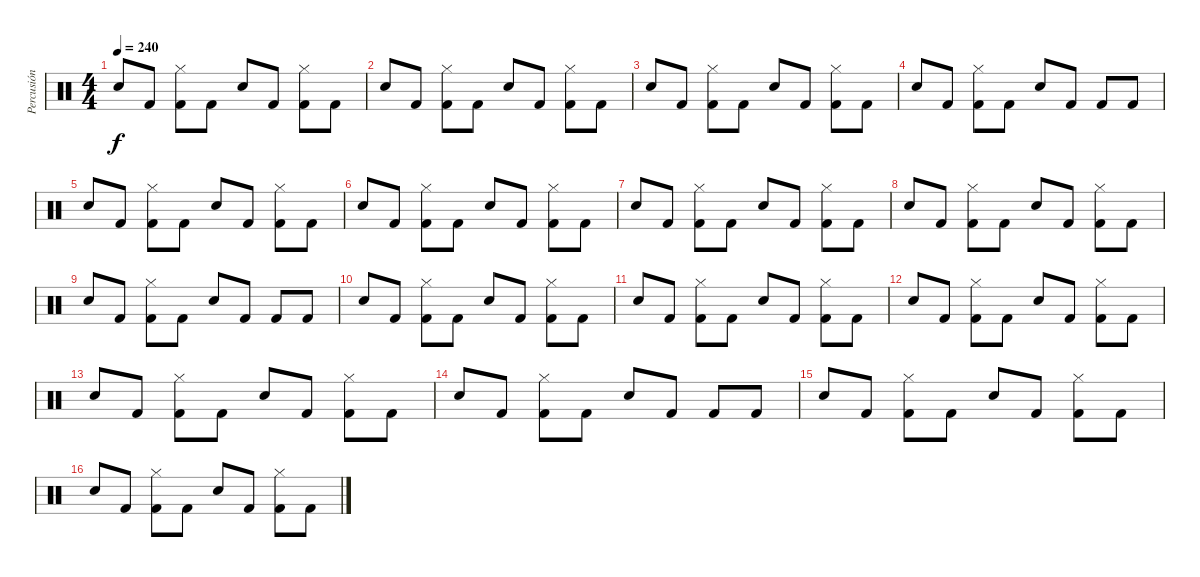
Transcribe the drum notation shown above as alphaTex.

\track ("Percusión" "Percusión") {instrument percussion}
\staff {score}
\articulation defaults
\ts (4 4)
\tempo 240
\clef neutral
\ks c "Snare (hit) 2".8{dy f} "Kick (hit) 2".8
("Kick (hit) 2" "Hi-Hat (closed)").8 "Kick (hit) 2".8 "Snare (hit) 2".8 "Kick (hit) 2".8 ("Kick (hit) 2" "Hi-Hat (closed)").8 "Kick (hit) 2".8 |
"Snare (hit) 2".8 "Kick (hit) 2".8 ("Kick (hit) 2" "Hi-Hat (closed)").8 "Kick (hit) 2".8 "Snare (hit) 2".8 "Kick (hit) 2".8 ("Kick (hit) 2" "Hi-Hat (closed)").8 "Kick (hit) 2".8 |
"Snare (hit) 2".8 "Kick (hit) 2".8 ("Kick (hit) 2" "Hi-Hat (closed)").8 "Kick (hit) 2".8 "Snare (hit) 2".8 "Kick (hit) 2".8 ("Kick (hit) 2" "Hi-Hat (closed)").8 "Kick (hit) 2".8 |
"Snare (hit) 2".8 "Kick (hit) 2".8 ("Kick (hit) 2" "Hi-Hat (closed)").8 "Kick (hit) 2".8 "Snare (hit) 2".8 "Kick (hit) 2".8 "Kick (hit) 2".8 "Kick (hit) 2".8 |
"Snare (hit) 2".8 "Kick (hit) 2".8 ("Kick (hit) 2" "Hi-Hat (closed)").8 "Kick (hit) 2".8 "Snare (hit) 2".8 "Kick (hit) 2".8 ("Kick (hit) 2" "Hi-Hat (closed)").8 "Kick (hit) 2".8 |
"Snare (hit) 2".8 "Kick (hit) 2".8 ("Kick (hit) 2" "Hi-Hat (closed)").8 "Kick (hit) 2".8 "Snare (hit) 2".8 "Kick (hit) 2".8 ("Kick (hit) 2" "Hi-Hat (closed)").8 "Kick (hit) 2".8 |
"Snare (hit) 2".8 "Kick (hit) 2".8 ("Kick (hit) 2" "Hi-Hat (closed)").8 "Kick (hit) 2".8 "Snare (hit) 2".8 "Kick (hit) 2".8 ("Kick (hit) 2" "Hi-Hat (closed)").8 "Kick (hit) 2".8 |
"Snare (hit) 2".8 "Kick (hit) 2".8 ("Kick (hit) 2" "Hi-Hat (closed)").8 "Kick (hit) 2".8 "Snare (hit) 2".8 "Kick (hit) 2".8 ("Kick (hit) 2" "Hi-Hat (closed)").8 "Kick (hit) 2".8 |
"Snare (hit) 2".8 "Kick (hit) 2".8 ("Kick (hit) 2" "Hi-Hat (closed)").8 "Kick (hit) 2".8 "Snare (hit) 2".8 "Kick (hit) 2".8 "Kick (hit) 2".8 "Kick (hit) 2".8 |
"Snare (hit) 2".8 "Kick (hit) 2".8 ("Kick (hit) 2" "Hi-Hat (closed)").8 "Kick (hit) 2".8 "Snare (hit) 2".8 "Kick (hit) 2".8 ("Kick (hit) 2" "Hi-Hat (closed)").8 "Kick (hit) 2".8 |
"Snare (hit) 2".8 "Kick (hit) 2".8 ("Kick (hit) 2" "Hi-Hat (closed)").8 "Kick (hit) 2".8 "Snare (hit) 2".8 "Kick (hit) 2".8 ("Kick (hit) 2" "Hi-Hat (closed)").8 "Kick (hit) 2".8 |
"Snare (hit) 2".8 "Kick (hit) 2".8 ("Kick (hit) 2" "Hi-Hat (closed)").8 "Kick (hit) 2".8 "Snare (hit) 2".8 "Kick (hit) 2".8 ("Kick (hit) 2" "Hi-Hat (closed)").8 "Kick (hit) 2".8 |
"Snare (hit) 2".8 "Kick (hit) 2".8 ("Kick (hit) 2" "Hi-Hat (closed)").8 "Kick (hit) 2".8 "Snare (hit) 2".8 "Kick (hit) 2".8 ("Kick (hit) 2" "Hi-Hat (closed)").8 "Kick (hit) 2".8 |
"Snare (hit) 2".8 "Kick (hit) 2".8 ("Kick (hit) 2" "Hi-Hat (closed)").8 "Kick (hit) 2".8 "Snare (hit) 2".8 "Kick (hit) 2".8 "Kick (hit) 2".8 "Kick (hit) 2".8 |
"Snare (hit) 2".8 "Kick (hit) 2".8 ("Kick (hit) 2" "Hi-Hat (closed)").8 "Kick (hit) 2".8 "Snare (hit) 2".8 "Kick (hit) 2".8 ("Kick (hit) 2" "Hi-Hat (closed)").8 "Kick (hit) 2".8 |
"Snare (hit) 2".8 "Kick (hit) 2".8 ("Kick (hit) 2" "Hi-Hat (closed)").8 "Kick (hit) 2".8 "Snare (hit) 2".8 "Kick (hit) 2".8 ("Kick (hit) 2" "Hi-Hat (closed)").8 "Kick (hit) 2".8
